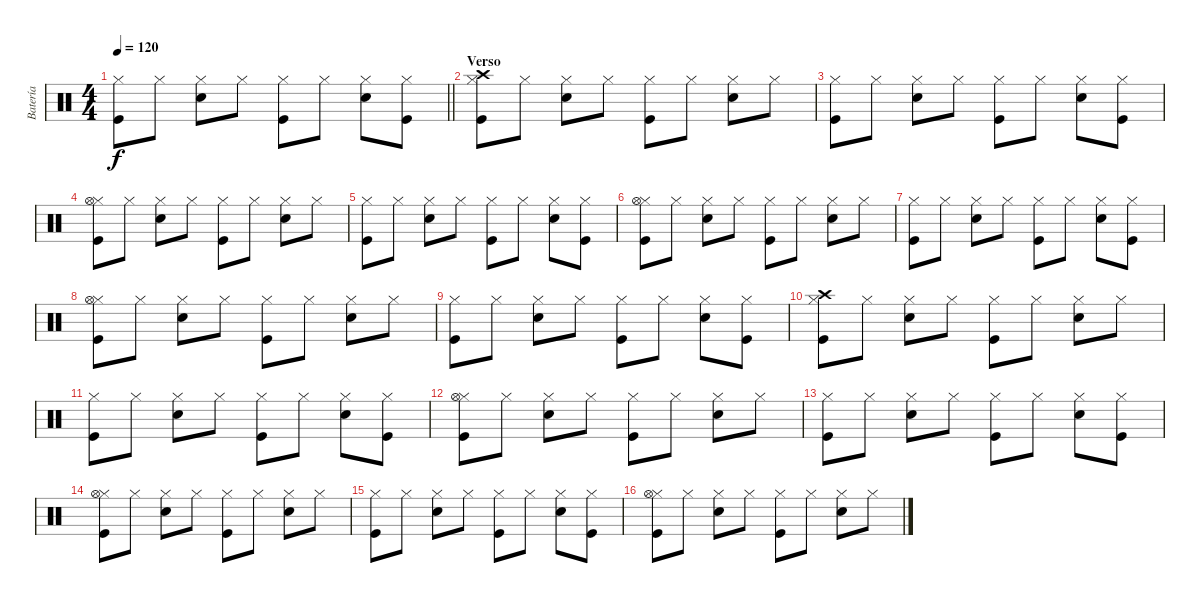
\track ("Batería" "Batería") {instrument percussion}
\staff {score}
\articulation defaults
\ts (4 4)
\tempo 120
\clef neutral
\barLineRight lightlight
\ks c
("Kick (hit)" "Hi-Hat (closed)").8{dy f} "Hi-Hat (closed)".8 ("Electric Snare (hit)" "Hi-Hat (closed)").8 "Hi-Hat (closed)".8 ("Kick (hit)" "Hi-Hat (closed)").8 "Hi-Hat (closed)".8 ("Electric Snare (hit)" "Hi-Hat (closed)").8 ("Kick (hit)" "Hi-Hat (closed)").8 |
\section ("" "Verso")
("Kick (hit)" "Hi-Hat (closed)" "Crash high (hit)").8 "Hi-Hat (closed)".8 ("Electric Snare (hit)" "Hi-Hat (closed)").8 "Hi-Hat (closed)".8 ("Kick (hit)" "Hi-Hat (closed)").8 "Hi-Hat (closed)".8 ("Electric Snare (hit)" "Hi-Hat (closed)").8 "Hi-Hat (closed)".8 |
("Kick (hit)" "Hi-Hat (closed)").8 "Hi-Hat (closed)".8 ("Electric Snare (hit)" "Hi-Hat (closed)").8 "Hi-Hat (closed)".8 ("Kick (hit)" "Hi-Hat (closed)").8 "Hi-Hat (closed)".8 ("Electric Snare (hit)" "Hi-Hat (closed)").8 ("Kick (hit)" "Hi-Hat (closed)").8 |
("Kick (hit)" "Hi-Hat (closed)" "Hi-Hat (open)").8 "Hi-Hat (closed)".8 ("Electric Snare (hit)" "Hi-Hat (closed)").8 "Hi-Hat (closed)".8 ("Kick (hit)" "Hi-Hat (closed)").8 "Hi-Hat (closed)".8 ("Electric Snare (hit)" "Hi-Hat (closed)").8 "Hi-Hat (closed)".8 |
("Kick (hit)" "Hi-Hat (closed)").8 "Hi-Hat (closed)".8 ("Electric Snare (hit)" "Hi-Hat (closed)").8 "Hi-Hat (closed)".8 ("Kick (hit)" "Hi-Hat (closed)").8 "Hi-Hat (closed)".8 ("Electric Snare (hit)" "Hi-Hat (closed)").8 ("Kick (hit)" "Hi-Hat (closed)").8 |
("Kick (hit)" "Hi-Hat (closed)" "Hi-Hat (open)").8 "Hi-Hat (closed)".8 ("Electric Snare (hit)" "Hi-Hat (closed)").8 "Hi-Hat (closed)".8 ("Kick (hit)" "Hi-Hat (closed)").8 "Hi-Hat (closed)".8 ("Electric Snare (hit)" "Hi-Hat (closed)").8 "Hi-Hat (closed)".8 |
("Kick (hit)" "Hi-Hat (closed)").8 "Hi-Hat (closed)".8 ("Electric Snare (hit)" "Hi-Hat (closed)").8 "Hi-Hat (closed)".8 ("Kick (hit)" "Hi-Hat (closed)").8 "Hi-Hat (closed)".8 ("Electric Snare (hit)" "Hi-Hat (closed)").8 ("Kick (hit)" "Hi-Hat (closed)").8 |
("Kick (hit)" "Hi-Hat (closed)" "Hi-Hat (open)").8 "Hi-Hat (closed)".8 ("Electric Snare (hit)" "Hi-Hat (closed)").8 "Hi-Hat (closed)".8 ("Kick (hit)" "Hi-Hat (closed)").8 "Hi-Hat (closed)".8 ("Electric Snare (hit)" "Hi-Hat (closed)").8 "Hi-Hat (closed)".8 |
("Kick (hit)" "Hi-Hat (closed)").8 "Hi-Hat (closed)".8 ("Electric Snare (hit)" "Hi-Hat (closed)").8 "Hi-Hat (closed)".8 ("Kick (hit)" "Hi-Hat (closed)").8 "Hi-Hat (closed)".8 ("Electric Snare (hit)" "Hi-Hat (closed)").8 ("Kick (hit)" "Hi-Hat (closed)").8 |
("Kick (hit)" "Hi-Hat (closed)" "Crash high (hit)").8 "Hi-Hat (closed)".8 ("Electric Snare (hit)" "Hi-Hat (closed)").8 "Hi-Hat (closed)".8 ("Kick (hit)" "Hi-Hat (closed)").8 "Hi-Hat (closed)".8 ("Electric Snare (hit)" "Hi-Hat (closed)").8 "Hi-Hat (closed)".8 |
("Kick (hit)" "Hi-Hat (closed)").8 "Hi-Hat (closed)".8 ("Electric Snare (hit)" "Hi-Hat (closed)").8 "Hi-Hat (closed)".8 ("Kick (hit)" "Hi-Hat (closed)").8 "Hi-Hat (closed)".8 ("Electric Snare (hit)" "Hi-Hat (closed)").8 ("Kick (hit)" "Hi-Hat (closed)").8 |
("Kick (hit)" "Hi-Hat (closed)" "Hi-Hat (open)").8 "Hi-Hat (closed)".8 ("Electric Snare (hit)" "Hi-Hat (closed)").8 "Hi-Hat (closed)".8 ("Kick (hit)" "Hi-Hat (closed)").8 "Hi-Hat (closed)".8 ("Electric Snare (hit)" "Hi-Hat (closed)").8 "Hi-Hat (closed)".8 |
("Kick (hit)" "Hi-Hat (closed)").8 "Hi-Hat (closed)".8 ("Electric Snare (hit)" "Hi-Hat (closed)").8 "Hi-Hat (closed)".8 ("Kick (hit)" "Hi-Hat (closed)").8 "Hi-Hat (closed)".8 ("Electric Snare (hit)" "Hi-Hat (closed)").8 ("Kick (hit)" "Hi-Hat (closed)").8 |
("Kick (hit)" "Hi-Hat (closed)" "Hi-Hat (open)").8 "Hi-Hat (closed)".8 ("Electric Snare (hit)" "Hi-Hat (closed)").8 "Hi-Hat (closed)".8 ("Kick (hit)" "Hi-Hat (closed)").8 "Hi-Hat (closed)".8 ("Electric Snare (hit)" "Hi-Hat (closed)").8 "Hi-Hat (closed)".8 |
("Kick (hit)" "Hi-Hat (closed)").8 "Hi-Hat (closed)".8 ("Electric Snare (hit)" "Hi-Hat (closed)").8 "Hi-Hat (closed)".8 ("Kick (hit)" "Hi-Hat (closed)").8 "Hi-Hat (closed)".8 ("Electric Snare (hit)" "Hi-Hat (closed)").8 ("Kick (hit)" "Hi-Hat (closed)").8 |
("Kick (hit)" "Hi-Hat (closed)" "Hi-Hat (open)").8 "Hi-Hat (closed)".8 ("Electric Snare (hit)" "Hi-Hat (closed)").8 "Hi-Hat (closed)".8 ("Kick (hit)" "Hi-Hat (closed)").8 "Hi-Hat (closed)".8 ("Electric Snare (hit)" "Hi-Hat (closed)").8 "Hi-Hat (closed)".8
